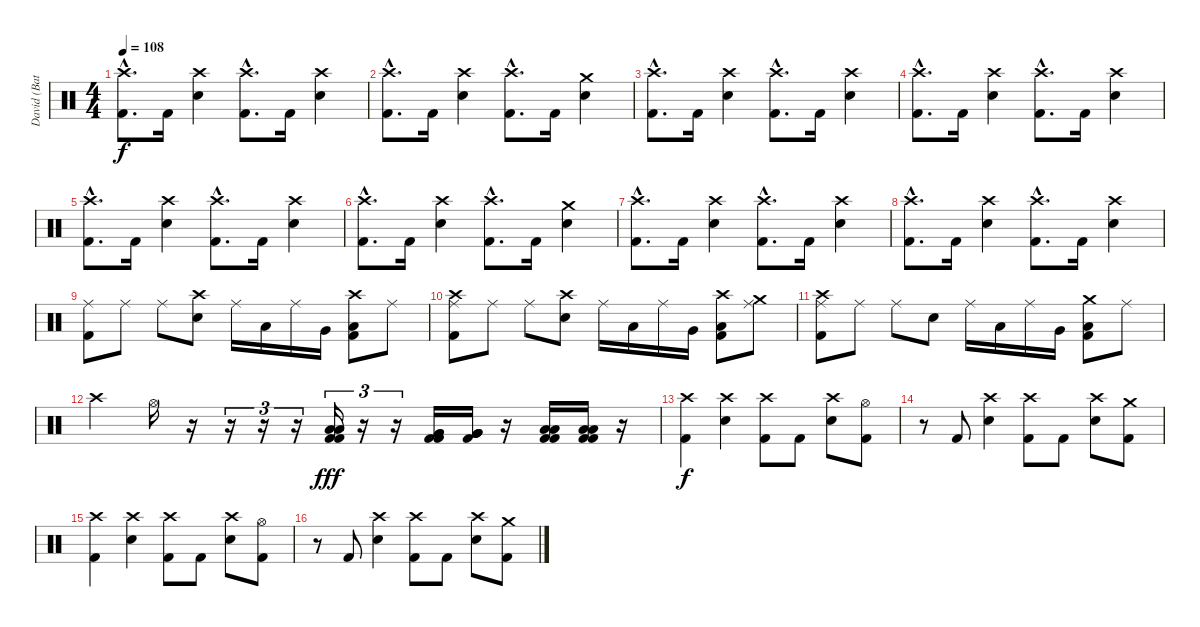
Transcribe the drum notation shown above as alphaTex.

\track ("David (Batterie)" "David (Bat") {instrument percussion}
\staff {score}
\articulation defaults
\ts (4 4)
\tempo 108
\clef neutral
\ks c
("Crash high (hit)"{hac} "Kick (hit) 2"{hac}).8{d dy f} "Kick (hit) 2".16 ("Crash high (hit)" "Electric Snare (hit)").4 ("Crash high (hit)"{hac} "Kick (hit) 2"{hac}).8{d} "Kick (hit) 2".16 ("Crash high (hit)" "Electric Snare (hit)").4 |
("Crash high (hit)"{hac} "Kick (hit) 2"{hac}).8{d} "Kick (hit) 2".16 ("Crash high (hit)" "Electric Snare (hit)").4 ("Crash high (hit)"{hac} "Kick (hit) 2"{hac}).8{d} "Kick (hit) 2".16 ("Crash medium (hit)" "Electric Snare (hit)").4 |
("Crash high (hit)"{hac} "Kick (hit) 2"{hac}).8{d} "Kick (hit) 2".16 ("Crash high (hit)" "Electric Snare (hit)").4 ("Crash high (hit)"{hac} "Kick (hit) 2"{hac}).8{d} "Kick (hit) 2".16 ("Crash high (hit)" "Electric Snare (hit)").4 |
("Crash high (hit)"{hac} "Kick (hit) 2"{hac}).8{d} "Kick (hit) 2".16 ("Crash high (hit)" "Electric Snare (hit)").4 ("Crash high (hit)"{hac} "Kick (hit) 2"{hac}).8{d} "Kick (hit) 2".16 ("Crash high (hit)" "Electric Snare (hit)").4 |
("Crash high (hit)"{hac} "Kick (hit) 2"{hac}).8{d} "Kick (hit) 2".16 ("Crash high (hit)" "Electric Snare (hit)").4 ("Crash high (hit)"{hac} "Kick (hit) 2"{hac}).8{d} "Kick (hit) 2".16 ("Crash high (hit)" "Electric Snare (hit)").4 |
("Crash high (hit)"{hac} "Kick (hit) 2"{hac}).8{d} "Kick (hit) 2".16 ("Crash high (hit)" "Electric Snare (hit)").4 ("Crash high (hit)"{hac} "Kick (hit) 2"{hac}).8{d} "Kick (hit) 2".16 ("Crash medium (hit)" "Electric Snare (hit)").4 |
("Crash high (hit)"{hac} "Kick (hit) 2"{hac}).8{d} "Kick (hit) 2".16 ("Crash high (hit)" "Electric Snare (hit)").4 ("Crash high (hit)"{hac} "Kick (hit) 2"{hac}).8{d} "Kick (hit) 2".16 ("Crash high (hit)" "Electric Snare (hit)").4 |
("Crash high (hit)"{hac} "Kick (hit) 2"{hac}).8{d} "Kick (hit) 2".16 ("Crash high (hit)" "Electric Snare (hit)").4 ("Crash high (hit)"{hac} "Kick (hit) 2"{hac}).8{d} "Kick (hit) 2".16 ("Crash high (hit)" "Electric Snare (hit)").4 |
("Ride (middle)" "Kick (hit) 2").8 "Ride (middle)".8 "Ride (middle)".8 ("Crash high (hit)" "Electric Snare (hit)").8 "Ride (middle)".16 "Low Tom (hit)".16 "Ride (middle)".16 "Very Low Tom (hit)".16 ("Crash high (hit)" "Low Floor Tom (hit)" "Kick (hit) 2").8 "Ride (middle)".8 |
("Crash high (hit)" "Ride (middle)" "Kick (hit) 2").8 "Ride (middle)".8 "Ride (middle)".8 ("Crash high (hit)" "Electric Snare (hit)").8 "Ride (middle)".16 "Low Tom (hit)".16 "Ride (middle)".16 "Very Low Tom (hit)".16 ("Crash high (hit)" "Low Floor Tom (hit)" "Kick (hit) 2").8 ("Crash medium (hit)" "Ride (middle)").8 |
("Crash high (hit)" "Ride (middle)" "Kick (hit) 2").8 "Ride (middle)".8 "Ride (middle)".8 "Electric Snare (hit)".8 "Ride (middle)".16 "Low Tom (hit)".16 "Ride (middle)".16 "Very Low Tom (hit)".16 ("Crash medium (hit)" "Low Floor Tom (hit)" "Kick (hit) 2").8 "Ride (middle)".8 |
"Crash high (hit)".4 "Hi-Hat (open)".16 r.16 r.16{tu (3 2)} r.16{tu (3 2)} r.16{tu (3 2)} ("Low Tom (hit)" "Low Tom (hit)" "Kick (hit) 2" "Kick (hit) 2").16{tu (3 2) dy fff} r.16{tu (3 2)} r.16{tu (3 2)} ("Very Low Tom (hit)" "Very Low Tom (hit)" "Kick (hit) 2" "Kick (hit) 2").16 ("Very Low Tom (hit)" "Very Low Tom (hit)" "Kick (hit) 2" "Very Low Tom (hit)").16 r.16 ("Low Floor Tom (hit)" "Low Floor Tom (hit)" "Kick (hit) 2" "Kick (hit) 2").16 ("Low Floor Tom (hit)" "Low Floor Tom (hit)" "Kick (hit) 2" "Kick (hit) 2").16 r.16 |
("Crash high (hit)" "Kick (hit) 2").4{dy f} ("Crash high (hit)" "Electric Snare (hit)").4 ("Crash high (hit)" "Kick (hit) 2").8 "Kick (hit) 2".8 ("Crash high (hit)" "Electric Snare (hit)").8 ("Hi-Hat (open)" "Kick (hit) 2").8 |
r.8 "Kick (hit) 2".8 ("Crash high (hit)" "Electric Snare (hit)").4 ("Crash high (hit)" "Kick (hit) 2").8 "Kick (hit) 2".8 ("Crash high (hit)" "Electric Snare (hit)").8 ("Crash medium (hit)" "Kick (hit) 2").8 |
("Crash high (hit)" "Kick (hit) 2").4 ("Crash high (hit)" "Electric Snare (hit)").4 ("Crash high (hit)" "Kick (hit) 2").8 "Kick (hit) 2".8 ("Crash high (hit)" "Electric Snare (hit)").8 ("Hi-Hat (open)" "Kick (hit) 2").8 |
r.8 "Kick (hit) 2".8 ("Crash high (hit)" "Electric Snare (hit)").4 ("Crash high (hit)" "Kick (hit) 2").8 "Kick (hit) 2".8 ("Crash high (hit)" "Electric Snare (hit)").8 ("Crash medium (hit)" "Kick (hit) 2").8
